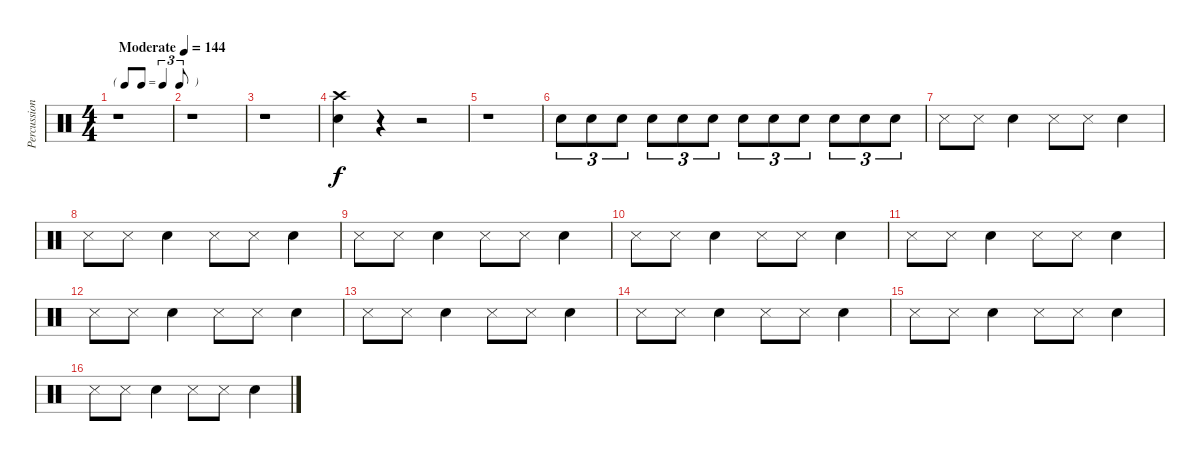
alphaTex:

\track ("Percussions" "Percussion") {instrument percussion}
\staff {score}
\articulation defaults
\ts (4 4)
\tf triplet8th
\tempo (144 "Moderate")
\clef neutral
\ks c
r.1{dy f} |
r.1 |
r.1 |
("Snare (hit) 2" "Crash high (hit)").4 r.4 r.2 |
r.1 |
"Snare (hit) 2".8{tu (3 2)} "Snare (hit) 2".8{tu (3 2)} "Snare (hit) 2".8{tu (3 2)} "Snare (hit) 2".8{tu (3 2)} "Snare (hit) 2".8{tu (3 2)} "Snare (hit) 2".8{tu (3 2)} "Snare (hit) 2".8{tu (3 2)} "Snare (hit) 2".8{tu (3 2)} "Snare (hit) 2".8{tu (3 2)} "Snare (hit) 2".8{tu (3 2)} "Snare (hit) 2".8{tu (3 2)} "Snare (hit) 2".8{tu (3 2)} |
"Snare (side stick) 3".8 "Snare (side stick) 3".8 "Snare (hit) 2".4 "Snare (side stick) 3".8 "Snare (side stick) 3".8 "Snare (hit) 2".4 |
"Snare (side stick) 3".8 "Snare (side stick) 3".8 "Snare (hit) 2".4 "Snare (side stick) 3".8 "Snare (side stick) 3".8 "Snare (hit) 2".4 |
"Snare (side stick) 3".8 "Snare (side stick) 3".8 "Snare (hit) 2".4 "Snare (side stick) 3".8 "Snare (side stick) 3".8 "Snare (hit) 2".4 |
"Snare (side stick) 3".8 "Snare (side stick) 3".8 "Snare (hit) 2".4 "Snare (side stick) 3".8 "Snare (side stick) 3".8 "Snare (hit) 2".4 |
"Snare (side stick) 3".8 "Snare (side stick) 3".8 "Snare (hit) 2".4 "Snare (side stick) 3".8 "Snare (side stick) 3".8 "Snare (hit) 2".4 |
"Snare (side stick) 3".8 "Snare (side stick) 3".8 "Snare (hit) 2".4 "Snare (side stick) 3".8 "Snare (side stick) 3".8 "Snare (hit) 2".4 |
"Snare (side stick) 3".8 "Snare (side stick) 3".8 "Snare (hit) 2".4 "Snare (side stick) 3".8 "Snare (side stick) 3".8 "Snare (hit) 2".4 |
"Snare (side stick) 3".8 "Snare (side stick) 3".8 "Snare (hit) 2".4 "Snare (side stick) 3".8 "Snare (side stick) 3".8 "Snare (hit) 2".4 |
"Snare (side stick) 3".8 "Snare (side stick) 3".8 "Snare (hit) 2".4 "Snare (side stick) 3".8 "Snare (side stick) 3".8 "Snare (hit) 2".4 |
"Snare (side stick) 3".8 "Snare (side stick) 3".8 "Snare (hit) 2".4 "Snare (side stick) 3".8 "Snare (side stick) 3".8 "Snare (hit) 2".4
